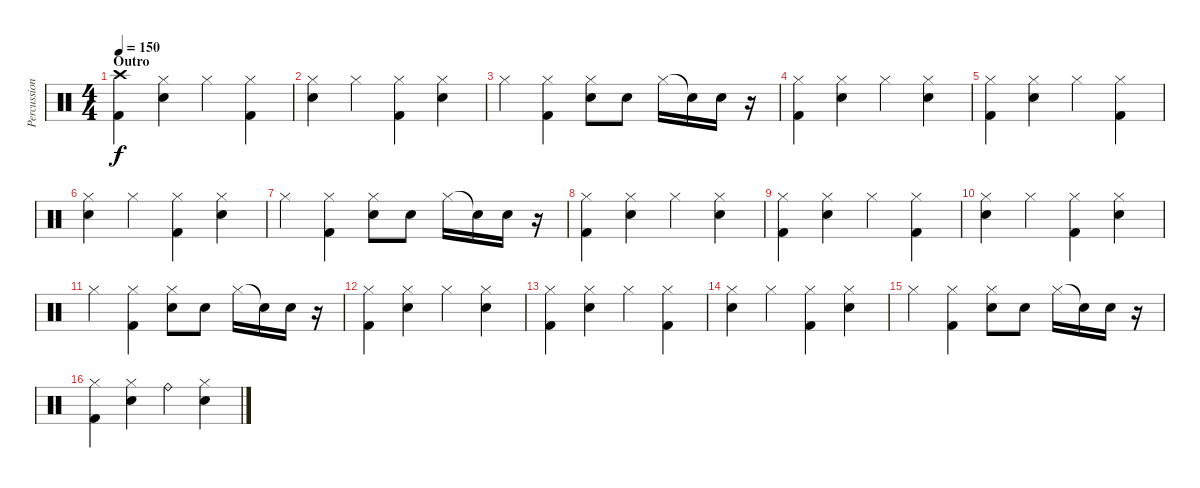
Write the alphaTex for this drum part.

\track ("Percussion" "Percussion") {instrument percussion}
\staff {score}
\articulation defaults
\ts (4 4)
\section ("" "Outro")
\tempo 150
\clef neutral
\ks c
("Crash high (hit)" "Kick (hit) 2").4{dy f} ("Electric Snare (hit)" "Hi-Hat (closed)").4 "Hi-Hat (closed)".4 ("Kick (hit) 2" "Hi-Hat (closed)").4 |
("Electric Snare (hit)" "Hi-Hat (closed)").4 "Hi-Hat (closed)".4 ("Kick (hit) 2" "Hi-Hat (closed)").4 ("Electric Snare (hit)" "Hi-Hat (closed)").4 |
"Hi-Hat (closed)".4 ("Kick (hit) 2" "Hi-Hat (closed)").4 ("Electric Snare (hit)" "Hi-Hat (closed)").8 "Electric Snare (hit)".8 "Hi-Hat (closed)".16 "Snare (hit)"{t}.16 "Electric Snare (hit)".16 r.16 |
("Hi-Hat (closed)" "Kick (hit) 2").4 ("Electric Snare (hit)" "Hi-Hat (closed)").4 "Hi-Hat (closed)".4 ("Electric Snare (hit)" "Hi-Hat (closed)").4 |
("Hi-Hat (closed)" "Kick (hit) 2").4 ("Electric Snare (hit)" "Hi-Hat (closed)").4 "Hi-Hat (closed)".4 ("Kick (hit) 2" "Hi-Hat (closed)").4 |
("Electric Snare (hit)" "Hi-Hat (closed)").4 "Hi-Hat (closed)".4 ("Kick (hit) 2" "Hi-Hat (closed)").4 ("Electric Snare (hit)" "Hi-Hat (closed)").4 |
"Hi-Hat (closed)".4 ("Kick (hit) 2" "Hi-Hat (closed)").4 ("Electric Snare (hit)" "Hi-Hat (closed)").8 "Electric Snare (hit)".8 "Hi-Hat (closed)".16 "Snare (hit)"{t}.16 "Electric Snare (hit)".16 r.16 |
("Hi-Hat (closed)" "Kick (hit) 2").4 ("Electric Snare (hit)" "Hi-Hat (closed)").4 "Hi-Hat (closed)".4 ("Electric Snare (hit)" "Hi-Hat (closed)").4 |
("Hi-Hat (closed)" "Kick (hit) 2").4 ("Electric Snare (hit)" "Hi-Hat (closed)").4 "Hi-Hat (closed)".4 ("Kick (hit) 2" "Hi-Hat (closed)").4 |
("Electric Snare (hit)" "Hi-Hat (closed)").4 "Hi-Hat (closed)".4 ("Kick (hit) 2" "Hi-Hat (closed)").4 ("Electric Snare (hit)" "Hi-Hat (closed)").4 |
"Hi-Hat (closed)".4 ("Kick (hit) 2" "Hi-Hat (closed)").4 ("Electric Snare (hit)" "Hi-Hat (closed)").8 "Electric Snare (hit)".8 "Hi-Hat (closed)".16 "Snare (hit)"{t}.16 "Electric Snare (hit)".16 r.16 |
("Hi-Hat (closed)" "Kick (hit) 2").4 ("Electric Snare (hit)" "Hi-Hat (closed)").4 "Hi-Hat (closed)".4 ("Electric Snare (hit)" "Hi-Hat (closed)").4 |
("Hi-Hat (closed)" "Kick (hit) 2").4 ("Electric Snare (hit)" "Hi-Hat (closed)").4 "Hi-Hat (closed)".4 ("Kick (hit) 2" "Hi-Hat (closed)").4 |
("Electric Snare (hit)" "Hi-Hat (closed)").4 "Hi-Hat (closed)".4 ("Kick (hit) 2" "Hi-Hat (closed)").4 ("Electric Snare (hit)" "Hi-Hat (closed)").4 |
"Hi-Hat (closed)".4 ("Kick (hit) 2" "Hi-Hat (closed)").4 ("Electric Snare (hit)" "Hi-Hat (closed)").8 "Electric Snare (hit)".8 "Hi-Hat (closed)".16 "Snare (hit)"{t}.16 "Electric Snare (hit)".16 r.16 |
("Hi-Hat (closed)" "Kick (hit) 2").4 ("Electric Snare (hit)" "Hi-Hat (closed)").4 "Ride (bell)".4 ("Electric Snare (hit)" "Hi-Hat (closed)").4
